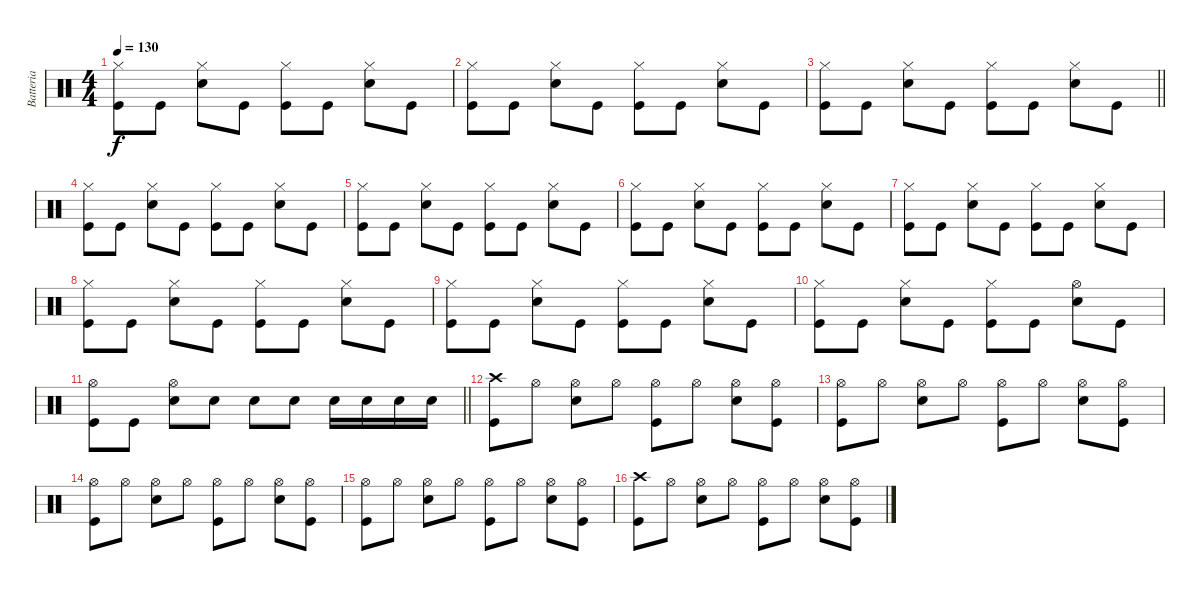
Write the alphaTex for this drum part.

\track ("Batteria" "Batteria") {instrument percussion}
\staff {score}
\articulation defaults
\ts (4 4)
\tempo 130
\clef neutral
\ks c
("Kick (hit)" "Hi-Hat (closed)").8{dy f} "Kick (hit)".8 ("Snare (hit) 2" "Hi-Hat (closed)").8 "Kick (hit)".8 ("Kick (hit)" "Hi-Hat (closed)").8 "Kick (hit)".8 ("Snare (hit) 2" "Hi-Hat (closed)").8 "Kick (hit)".8 |
("Hi-Hat (closed)" "Kick (hit)").8 "Kick (hit)".8 ("Snare (hit) 2" "Hi-Hat (closed)").8 "Kick (hit)".8 ("Kick (hit)" "Hi-Hat (closed)").8 "Kick (hit)".8 ("Snare (hit) 2" "Hi-Hat (closed)").8 "Kick (hit)".8 |
\barLineRight lightlight
("Kick (hit)" "Hi-Hat (closed)").8 "Kick (hit)".8 ("Snare (hit) 2" "Hi-Hat (closed)").8 "Kick (hit)".8 ("Kick (hit)" "Hi-Hat (closed)").8 "Kick (hit)".8 ("Snare (hit) 2" "Hi-Hat (closed)").8 "Kick (hit)".8 |
("Kick (hit)" "Hi-Hat (closed)").8 "Kick (hit)".8 ("Snare (hit) 2" "Hi-Hat (closed)").8 "Kick (hit)".8 ("Kick (hit)" "Hi-Hat (closed)").8 "Kick (hit)".8 ("Snare (hit) 2" "Hi-Hat (closed)").8 "Kick (hit)".8 |
("Kick (hit)" "Hi-Hat (closed)").8 "Kick (hit)".8 ("Snare (hit) 2" "Hi-Hat (closed)").8 "Kick (hit)".8 ("Kick (hit)" "Hi-Hat (closed)").8 "Kick (hit)".8 ("Snare (hit) 2" "Hi-Hat (closed)").8 "Kick (hit)".8 |
("Kick (hit)" "Hi-Hat (closed)").8 "Kick (hit)".8 ("Snare (hit) 2" "Hi-Hat (closed)").8 "Kick (hit)".8 ("Kick (hit)" "Hi-Hat (closed)").8 "Kick (hit)".8 ("Snare (hit) 2" "Hi-Hat (closed)").8 "Kick (hit)".8 |
("Kick (hit)" "Hi-Hat (closed)").8 "Kick (hit)".8 ("Snare (hit) 2" "Hi-Hat (closed)").8 "Kick (hit)".8 ("Kick (hit)" "Hi-Hat (closed)").8 "Kick (hit)".8 ("Snare (hit) 2" "Hi-Hat (closed)").8 "Kick (hit)".8 |
("Kick (hit)" "Hi-Hat (closed)").8 "Kick (hit)".8 ("Snare (hit) 2" "Hi-Hat (closed)").8 "Kick (hit)".8 ("Kick (hit)" "Hi-Hat (closed)").8 "Kick (hit)".8 ("Snare (hit) 2" "Hi-Hat (closed)").8 "Kick (hit)".8 |
("Kick (hit)" "Hi-Hat (closed)").8 "Kick (hit)".8 ("Snare (hit) 2" "Hi-Hat (closed)").8 "Kick (hit)".8 ("Kick (hit)" "Hi-Hat (closed)").8 "Kick (hit)".8 ("Snare (hit) 2" "Hi-Hat (closed)").8 "Kick (hit)".8 |
("Hi-Hat (closed)" "Kick (hit)").8 "Kick (hit)".8 ("Snare (hit) 2" "Hi-Hat (closed)").8 "Kick (hit)".8 ("Kick (hit)" "Hi-Hat (closed)").8 "Kick (hit)".8 ("Snare (hit) 2" "Hi-Hat (open)").8 "Kick (hit)".8 |
\barLineRight lightlight
("Kick (hit)" "Hi-Hat (open)").8 "Kick (hit)".8 ("Snare (hit) 2" "Hi-Hat (open)").8 "Snare (hit) 2".8 "Snare (hit) 2".8 "Snare (hit) 2".8 "Snare (hit) 2".16 "Snare (hit) 2".16 "Snare (hit) 2".16 "Snare (hit) 2".16 |
("Kick (hit)" "Crash high (hit)").8 "Hi-Hat (open)".8 ("Snare (hit) 2" "Hi-Hat (open)").8 "Hi-Hat (open)".8 ("Kick (hit)" "Hi-Hat (open)").8 "Hi-Hat (open)".8 ("Snare (hit) 2" "Hi-Hat (open)").8 ("Kick (hit)" "Hi-Hat (open)").8 |
("Kick (hit)" "Hi-Hat (open)").8 "Hi-Hat (open)".8 ("Snare (hit) 2" "Hi-Hat (open)").8 "Hi-Hat (open)".8 ("Kick (hit)" "Hi-Hat (open)").8 "Hi-Hat (open)".8 ("Snare (hit) 2" "Hi-Hat (open)").8 ("Kick (hit)" "Hi-Hat (open)").8 |
("Kick (hit)" "Hi-Hat (open)").8 "Hi-Hat (open)".8 ("Snare (hit) 2" "Hi-Hat (open)").8 "Hi-Hat (open)".8 ("Kick (hit)" "Hi-Hat (open)").8 "Hi-Hat (open)".8 ("Snare (hit) 2" "Hi-Hat (open)").8 ("Kick (hit)" "Hi-Hat (open)").8 |
("Kick (hit)" "Hi-Hat (open)").8 "Hi-Hat (open)".8 ("Snare (hit) 2" "Hi-Hat (open)").8 "Hi-Hat (open)".8 ("Kick (hit)" "Hi-Hat (open)").8 "Hi-Hat (open)".8 ("Snare (hit) 2" "Hi-Hat (open)").8 ("Kick (hit)" "Hi-Hat (open)").8 |
("Kick (hit)" "Crash high (hit)").8 "Hi-Hat (open)".8 ("Snare (hit) 2" "Hi-Hat (open)").8 "Hi-Hat (open)".8 ("Kick (hit)" "Hi-Hat (open)").8 "Hi-Hat (open)".8 ("Snare (hit) 2" "Hi-Hat (open)").8 ("Kick (hit)" "Hi-Hat (open)").8
